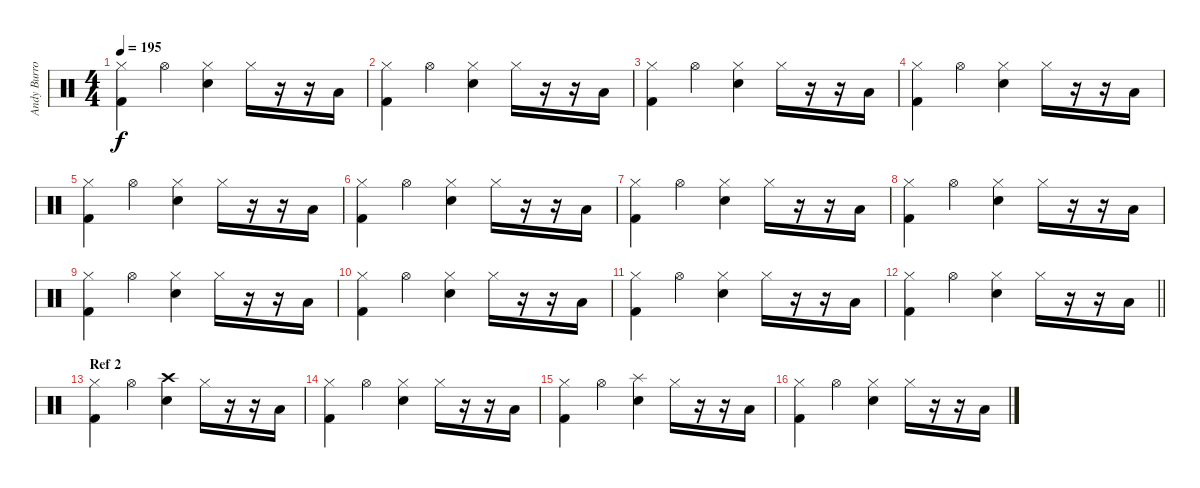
\track ("Andy Burrows (drums)" "Andy Burro") {instrument percussion}
\staff {score}
\articulation defaults
\ts (4 4)
\tempo 195
\clef neutral
\ks c
("Hi-Hat (closed)" "Kick (hit) 2").4{dy f} "Hi-Hat (open)".4 ("Hi-Hat (closed)" "Electric Snare (hit)").4 "Hi-Hat (closed)".16 r.16 r.16 "Low Floor Tom (hit)".16 |
("Hi-Hat (closed)" "Kick (hit) 2").4 "Hi-Hat (open)".4 ("Hi-Hat (closed)" "Electric Snare (hit)").4 "Hi-Hat (closed)".16 r.16 r.16 "Low Floor Tom (hit)".16 |
("Hi-Hat (closed)" "Kick (hit) 2").4 "Hi-Hat (open)".4 ("Hi-Hat (closed)" "Electric Snare (hit)").4 "Hi-Hat (closed)".16 r.16 r.16 "Low Floor Tom (hit)".16 |
("Hi-Hat (closed)" "Kick (hit) 2").4 "Hi-Hat (open)".4 ("Hi-Hat (closed)" "Electric Snare (hit)").4 "Hi-Hat (closed)".16 r.16 r.16 "Low Floor Tom (hit)".16 |
("Hi-Hat (closed)" "Kick (hit) 2").4 "Hi-Hat (open)".4 ("Hi-Hat (closed)" "Electric Snare (hit)").4 "Hi-Hat (closed)".16 r.16 r.16 "Low Floor Tom (hit)".16 |
("Hi-Hat (closed)" "Kick (hit) 2").4 "Hi-Hat (open)".4 ("Hi-Hat (closed)" "Electric Snare (hit)").4 "Hi-Hat (closed)".16 r.16 r.16 "Low Floor Tom (hit)".16 |
("Hi-Hat (closed)" "Kick (hit) 2").4 "Hi-Hat (open)".4 ("Hi-Hat (closed)" "Electric Snare (hit)").4 "Hi-Hat (closed)".16 r.16 r.16 "Low Floor Tom (hit)".16 |
("Hi-Hat (closed)" "Kick (hit) 2").4 "Hi-Hat (open)".4 ("Hi-Hat (closed)" "Electric Snare (hit)").4 "Hi-Hat (closed)".16 r.16 r.16 "Low Floor Tom (hit)".16 |
("Hi-Hat (closed)" "Kick (hit) 2").4 "Hi-Hat (open)".4 ("Hi-Hat (closed)" "Electric Snare (hit)").4 "Hi-Hat (closed)".16 r.16 r.16 "Low Floor Tom (hit)".16 |
("Hi-Hat (closed)" "Kick (hit) 2").4 "Hi-Hat (open)".4 ("Hi-Hat (closed)" "Electric Snare (hit)").4 "Hi-Hat (closed)".16 r.16 r.16 "Low Floor Tom (hit)".16 |
("Hi-Hat (closed)" "Kick (hit) 2").4 "Hi-Hat (open)".4 ("Hi-Hat (closed)" "Electric Snare (hit)").4 "Hi-Hat (closed)".16 r.16 r.16 "Low Floor Tom (hit)".16 |
\barLineRight lightlight
("Hi-Hat (closed)" "Kick (hit) 2").4 "Hi-Hat (open)".4 ("Hi-Hat (closed)" "Electric Snare (hit)").4 "Hi-Hat (closed)".16 r.16 r.16 "Low Floor Tom (hit)".16 |
\section ("" "Ref 2")
("Hi-Hat (closed)" "Kick (hit) 2").4 "Hi-Hat (open)".4 ("Crash high (hit)" "Electric Snare (hit)").4 "Hi-Hat (closed)".16 r.16 r.16 "Low Floor Tom (hit)".16 |
("Hi-Hat (closed)" "Kick (hit) 2").4 "Hi-Hat (open)".4 ("Hi-Hat (closed)" "Electric Snare (hit)").4 "Hi-Hat (closed)".16 r.16 r.16 "Low Floor Tom (hit)".16 |
("Hi-Hat (closed)" "Kick (hit) 2").4 "Hi-Hat (open)".4 ("Splash (hit)" "Electric Snare (hit)").4 "Hi-Hat (closed)".16 r.16 r.16 "Low Floor Tom (hit)".16 |
("Hi-Hat (closed)" "Kick (hit) 2").4 "Hi-Hat (open)".4 ("Hi-Hat (closed)" "Electric Snare (hit)").4 "Hi-Hat (closed)".16 r.16 r.16 "Low Floor Tom (hit)".16
